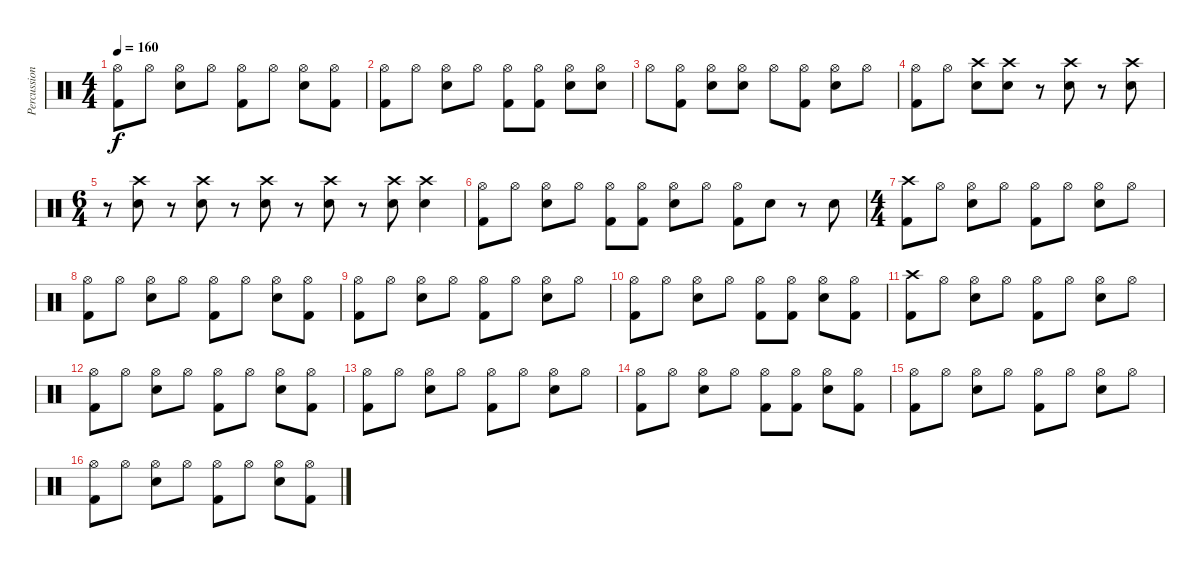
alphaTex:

\track ("Percussion" "Percussion") {instrument percussion}
\staff {score}
\articulation defaults
\ts (4 4)
\tempo 160
\clef neutral
\ks c
("Hi-Hat (open)" "Kick (hit) 2").8{dy f} "Hi-Hat (open)".8 ("Hi-Hat (open)" "Snare (hit) 2").8 "Hi-Hat (open)".8 ("Hi-Hat (open)" "Kick (hit) 2").8 "Hi-Hat (open)".8 ("Hi-Hat (open)" "Snare (hit) 2").8 ("Hi-Hat (open)" "Kick (hit) 2").8 |
("Hi-Hat (open)" "Kick (hit) 2").8 "Hi-Hat (open)".8 ("Hi-Hat (open)" "Snare (hit) 2").8 "Hi-Hat (open)".8 ("Hi-Hat (open)" "Kick (hit) 2").8 ("Hi-Hat (open)" "Kick (hit) 2").8 ("Hi-Hat (open)" "Snare (hit) 2").8 ("Hi-Hat (open)" "Snare (hit) 2").8 |
"Hi-Hat (open)".8 ("Hi-Hat (open)" "Kick (hit) 2").8 ("Hi-Hat (open)" "Snare (hit) 2").8 ("Hi-Hat (open)" "Snare (hit) 2").8 "Hi-Hat (open)".8 ("Hi-Hat (open)" "Kick (hit) 2").8 ("Hi-Hat (open)" "Snare (hit) 2").8 "Hi-Hat (open)".8 |
("Hi-Hat (open)" "Kick (hit) 2").8 "Hi-Hat (open)".8 ("Crash high (hit)" "Snare (hit) 2").8 ("Crash high (hit)" "Snare (hit) 2").8 r.8 ("Crash high (hit)" "Snare (hit) 2").8 r.8 ("Crash high (hit)" "Snare (hit) 2").8 |
\ts (6 4)
r.8 ("Crash high (hit)" "Snare (hit) 2").8 r.8 ("Crash high (hit)" "Snare (hit) 2").8 r.8 ("Crash high (hit)" "Snare (hit) 2").8 r.8 ("Crash high (hit)" "Snare (hit) 2").8 r.8 ("Crash high (hit)" "Snare (hit) 2").8 ("Crash high (hit)" "Snare (hit) 2").4 |
("Hi-Hat (open)" "Kick (hit) 2").8 "Hi-Hat (open)".8 ("Hi-Hat (open)" "Snare (hit) 2").8 "Hi-Hat (open)".8 ("Hi-Hat (open)" "Kick (hit) 2").8 ("Hi-Hat (open)" "Kick (hit) 2").8 ("Hi-Hat (open)" "Snare (hit) 2").8 "Hi-Hat (open)".8 ("Hi-Hat (open)" "Kick (hit) 2").8 "Snare (hit) 2".8 r.8 "Snare (hit) 2".8 |
\ts (4 4)
("Crash high (hit)" "Kick (hit) 2").8 "Hi-Hat (open)".8 ("Hi-Hat (open)" "Snare (hit) 2").8 "Hi-Hat (open)".8 ("Hi-Hat (open)" "Kick (hit) 2").8 "Hi-Hat (open)".8 ("Hi-Hat (open)" "Snare (hit) 2").8 "Hi-Hat (open)".8 |
("Hi-Hat (open)" "Kick (hit) 2").8 "Hi-Hat (open)".8 ("Hi-Hat (open)" "Snare (hit) 2").8 "Hi-Hat (open)".8 ("Hi-Hat (open)" "Kick (hit) 2").8 "Hi-Hat (open)".8 ("Hi-Hat (open)" "Snare (hit) 2").8 ("Hi-Hat (open)" "Kick (hit) 2").8 |
("Hi-Hat (open)" "Kick (hit) 2").8 "Hi-Hat (open)".8 ("Hi-Hat (open)" "Snare (hit) 2").8 "Hi-Hat (open)".8 ("Hi-Hat (open)" "Kick (hit) 2").8 "Hi-Hat (open)".8 ("Hi-Hat (open)" "Snare (hit) 2").8 "Hi-Hat (open)".8 |
("Hi-Hat (open)" "Kick (hit) 2").8 "Hi-Hat (open)".8 ("Hi-Hat (open)" "Snare (hit) 2").8 "Hi-Hat (open)".8 ("Hi-Hat (open)" "Kick (hit) 2").8 ("Hi-Hat (open)" "Kick (hit) 2").8 ("Hi-Hat (open)" "Snare (hit) 2").8 ("Hi-Hat (open)" "Kick (hit) 2").8 |
("Crash high (hit)" "Kick (hit) 2").8 "Hi-Hat (open)".8 ("Hi-Hat (open)" "Snare (hit) 2").8 "Hi-Hat (open)".8 ("Hi-Hat (open)" "Kick (hit) 2").8 "Hi-Hat (open)".8 ("Hi-Hat (open)" "Snare (hit) 2").8 "Hi-Hat (open)".8 |
("Hi-Hat (open)" "Kick (hit) 2").8 "Hi-Hat (open)".8 ("Hi-Hat (open)" "Snare (hit) 2").8 "Hi-Hat (open)".8 ("Hi-Hat (open)" "Kick (hit) 2").8 "Hi-Hat (open)".8 ("Hi-Hat (open)" "Snare (hit) 2").8 ("Hi-Hat (open)" "Kick (hit) 2").8 |
("Hi-Hat (open)" "Kick (hit) 2").8 "Hi-Hat (open)".8 ("Hi-Hat (open)" "Snare (hit) 2").8 "Hi-Hat (open)".8 ("Hi-Hat (open)" "Kick (hit) 2").8 "Hi-Hat (open)".8 ("Hi-Hat (open)" "Snare (hit) 2").8 "Hi-Hat (open)".8 |
("Hi-Hat (open)" "Kick (hit) 2").8 "Hi-Hat (open)".8 ("Hi-Hat (open)" "Snare (hit) 2").8 "Hi-Hat (open)".8 ("Hi-Hat (open)" "Kick (hit) 2").8 ("Hi-Hat (open)" "Kick (hit) 2").8 ("Hi-Hat (open)" "Snare (hit) 2").8 ("Hi-Hat (open)" "Kick (hit) 2").8 |
("Hi-Hat (open)" "Kick (hit) 2").8 "Hi-Hat (open)".8 ("Hi-Hat (open)" "Snare (hit) 2").8 "Hi-Hat (open)".8 ("Hi-Hat (open)" "Kick (hit) 2").8 "Hi-Hat (open)".8 ("Hi-Hat (open)" "Snare (hit) 2").8 "Hi-Hat (open)".8 |
("Hi-Hat (open)" "Kick (hit) 2").8 "Hi-Hat (open)".8 ("Hi-Hat (open)" "Snare (hit) 2").8 "Hi-Hat (open)".8 ("Hi-Hat (open)" "Kick (hit) 2").8 "Hi-Hat (open)".8 ("Hi-Hat (open)" "Snare (hit) 2").8 ("Hi-Hat (open)" "Kick (hit) 2").8
